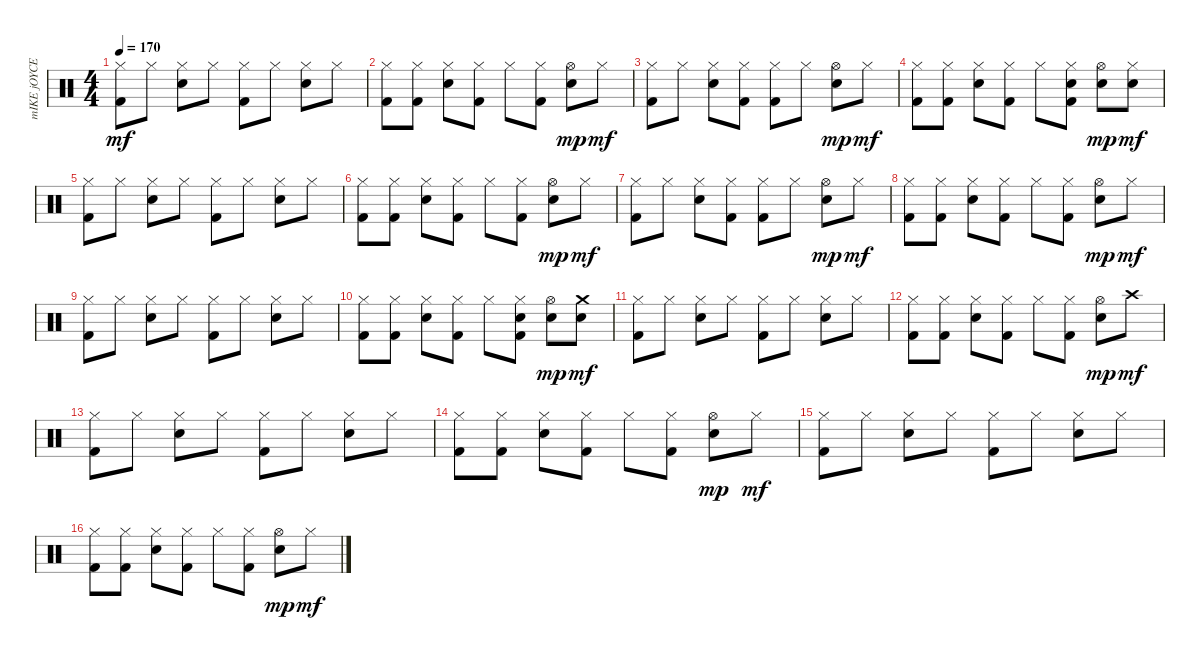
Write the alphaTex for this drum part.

\track ("mIKE jOYCE" "mIKE jOYCE") {instrument percussion}
\staff {score}
\articulation defaults
\ts (4 4)
\tempo 170
\clef neutral
\ks c
("Hi-Hat (closed)" "Kick (hit) 2").8{dy mf} "Hi-Hat (closed)".8 ("Hi-Hat (closed)" "Electric Snare (hit)").8 "Hi-Hat (closed)".8 ("Hi-Hat (closed)" "Kick (hit) 2").8 "Hi-Hat (closed)".8 ("Hi-Hat (closed)" "Electric Snare (hit)").8 "Hi-Hat (closed)".8 |
("Hi-Hat (closed)" "Kick (hit) 2").8 ("Hi-Hat (closed)" "Kick (hit) 2").8 ("Hi-Hat (closed)" "Electric Snare (hit)").8 ("Hi-Hat (closed)" "Kick (hit) 2").8 "Hi-Hat (closed)".8 ("Hi-Hat (closed)" "Kick (hit) 2").8 ("Hi-Hat (open)" "Electric Snare (hit)").8{dy mp} "Hi-Hat (closed)".8{dy mf} |
("Hi-Hat (closed)" "Kick (hit) 2").8 "Hi-Hat (closed)".8 ("Hi-Hat (closed)" "Electric Snare (hit)").8 ("Hi-Hat (closed)" "Kick (hit) 2").8 ("Hi-Hat (closed)" "Kick (hit) 2").8 "Hi-Hat (closed)".8 ("Hi-Hat (open)" "Electric Snare (hit)").8{dy mp} "Hi-Hat (closed)".8{dy mf} |
("Hi-Hat (closed)" "Kick (hit) 2").8 ("Hi-Hat (closed)" "Kick (hit) 2").8 ("Hi-Hat (closed)" "Electric Snare (hit)").8 ("Hi-Hat (closed)" "Kick (hit) 2").8 "Hi-Hat (closed)".8 ("Hi-Hat (closed)" "Electric Snare (hit)" "Kick (hit) 2").8 ("Hi-Hat (open)" "Electric Snare (hit)").8{dy mp} ("Hi-Hat (closed)" "Electric Snare (hit)").8{dy mf} |
("Hi-Hat (closed)" "Kick (hit) 2").8 "Hi-Hat (closed)".8 ("Hi-Hat (closed)" "Electric Snare (hit)").8 "Hi-Hat (closed)".8 ("Hi-Hat (closed)" "Kick (hit) 2").8 "Hi-Hat (closed)".8 ("Hi-Hat (closed)" "Electric Snare (hit)").8 "Hi-Hat (closed)".8 |
("Hi-Hat (closed)" "Kick (hit) 2").8 ("Hi-Hat (closed)" "Kick (hit) 2").8 ("Hi-Hat (closed)" "Electric Snare (hit)").8 ("Hi-Hat (closed)" "Kick (hit) 2").8 "Hi-Hat (closed)".8 ("Hi-Hat (closed)" "Kick (hit) 2").8 ("Hi-Hat (open)" "Electric Snare (hit)").8{dy mp} "Hi-Hat (closed)".8{dy mf} |
("Hi-Hat (closed)" "Kick (hit) 2").8 "Hi-Hat (closed)".8 ("Hi-Hat (closed)" "Electric Snare (hit)").8 ("Hi-Hat (closed)" "Kick (hit) 2").8 ("Hi-Hat (closed)" "Kick (hit) 2").8 "Hi-Hat (closed)".8 ("Hi-Hat (open)" "Electric Snare (hit)").8{dy mp} "Hi-Hat (closed)".8{dy mf} |
("Hi-Hat (closed)" "Kick (hit) 2").8 ("Hi-Hat (closed)" "Kick (hit) 2").8 ("Hi-Hat (closed)" "Electric Snare (hit)").8 ("Hi-Hat (closed)" "Kick (hit) 2").8 "Hi-Hat (closed)".8 ("Hi-Hat (closed)" "Kick (hit) 2").8 ("Hi-Hat (open)" "Electric Snare (hit)").8{dy mp} "Hi-Hat (closed)".8{dy mf} |
("Hi-Hat (closed)" "Kick (hit) 2").8 "Hi-Hat (closed)".8 ("Hi-Hat (closed)" "Electric Snare (hit)").8 "Hi-Hat (closed)".8 ("Hi-Hat (closed)" "Kick (hit) 2").8 "Hi-Hat (closed)".8 ("Hi-Hat (closed)" "Electric Snare (hit)").8 "Hi-Hat (closed)".8 |
("Hi-Hat (closed)" "Kick (hit) 2").8 ("Hi-Hat (closed)" "Kick (hit) 2").8 ("Hi-Hat (closed)" "Electric Snare (hit)").8 ("Hi-Hat (closed)" "Kick (hit) 2").8 "Hi-Hat (closed)".8 ("Hi-Hat (closed)" "Electric Snare (hit)" "Kick (hit) 2").8 ("Hi-Hat (open)" "Electric Snare (hit)").8{dy mp} ("Crash medium (hit)" "Electric Snare (hit)").8{dy mf} |
("Hi-Hat (closed)" "Kick (hit) 2").8 "Hi-Hat (closed)".8 ("Hi-Hat (closed)" "Electric Snare (hit)").8 "Hi-Hat (closed)".8 ("Hi-Hat (closed)" "Kick (hit) 2").8 "Hi-Hat (closed)".8 ("Hi-Hat (closed)" "Electric Snare (hit)").8 "Hi-Hat (closed)".8 |
("Hi-Hat (closed)" "Kick (hit) 2").8 ("Hi-Hat (closed)" "Kick (hit) 2").8 ("Hi-Hat (closed)" "Electric Snare (hit)").8 ("Hi-Hat (closed)" "Kick (hit) 2").8 "Hi-Hat (closed)".8 ("Hi-Hat (closed)" "Kick (hit) 2").8 ("Hi-Hat (open)" "Electric Snare (hit)").8{dy mp} "Crash high (hit)".8{dy mf} |
("Hi-Hat (closed)" "Kick (hit) 2").8 "Hi-Hat (closed)".8 ("Hi-Hat (closed)" "Electric Snare (hit)").8 "Hi-Hat (closed)".8 ("Hi-Hat (closed)" "Kick (hit) 2").8 "Hi-Hat (closed)".8 ("Hi-Hat (closed)" "Electric Snare (hit)").8 "Hi-Hat (closed)".8 |
("Hi-Hat (closed)" "Kick (hit) 2").8 ("Hi-Hat (closed)" "Kick (hit) 2").8 ("Hi-Hat (closed)" "Electric Snare (hit)").8 ("Hi-Hat (closed)" "Kick (hit) 2").8 "Hi-Hat (closed)".8 ("Hi-Hat (closed)" "Kick (hit) 2").8 ("Hi-Hat (open)" "Electric Snare (hit)").8{dy mp} "Hi-Hat (closed)".8{dy mf} |
("Hi-Hat (closed)" "Kick (hit) 2").8 "Hi-Hat (closed)".8 ("Hi-Hat (closed)" "Electric Snare (hit)").8 "Hi-Hat (closed)".8 ("Hi-Hat (closed)" "Kick (hit) 2").8 "Hi-Hat (closed)".8 ("Hi-Hat (closed)" "Electric Snare (hit)").8 "Hi-Hat (closed)".8 |
("Hi-Hat (closed)" "Kick (hit) 2").8 ("Hi-Hat (closed)" "Kick (hit) 2").8 ("Hi-Hat (closed)" "Electric Snare (hit)").8 ("Hi-Hat (closed)" "Kick (hit) 2").8 "Hi-Hat (closed)".8 ("Hi-Hat (closed)" "Kick (hit) 2").8 ("Hi-Hat (open)" "Electric Snare (hit)").8{dy mp} "Hi-Hat (closed)".8{dy mf}
